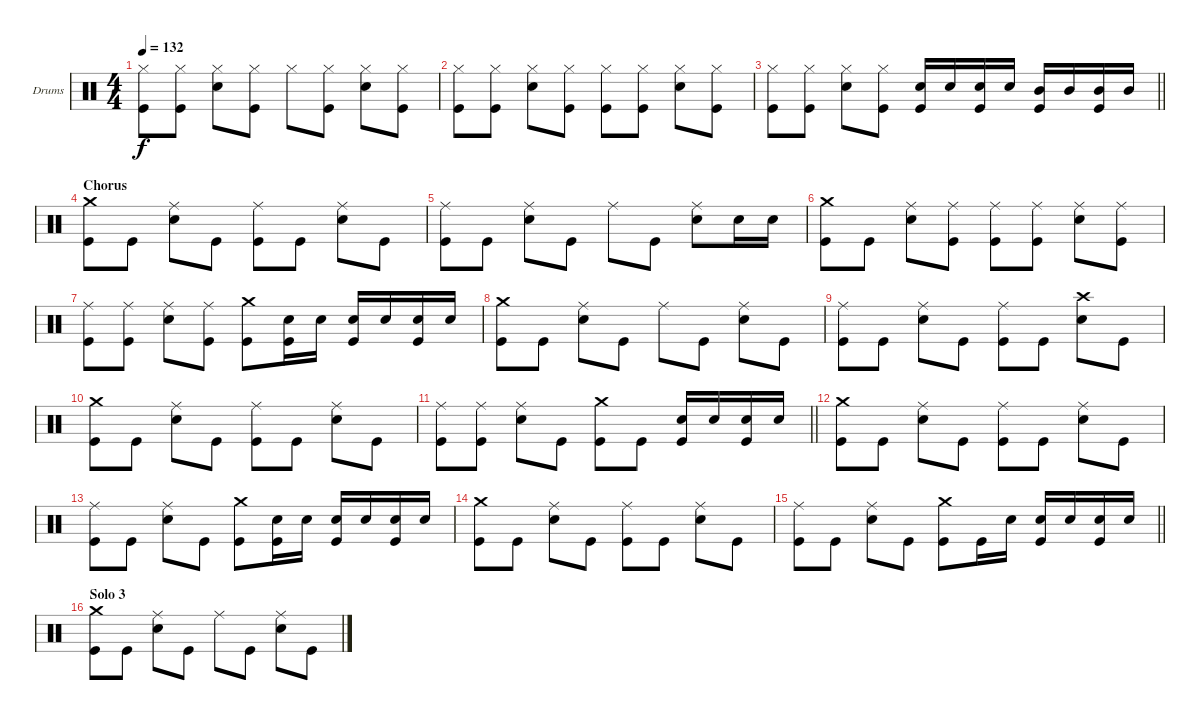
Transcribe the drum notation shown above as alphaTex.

\bracketExtendMode groupsimilarinstruments
\firstSystemTrackNameOrientation horizontal
\otherSystemsTrackNameOrientation horizontal
\track ("Drumkit" "Drums") {instrument percussion}
\staff {score}
\articulation defaults
\ts (4 4)
\tempo 132
\clef neutral
\ks c
("Hi-Hat (closed)" "Kick (hit)").8{dy f} ("Hi-Hat (closed)" "Kick (hit)").8 ("Hi-Hat (closed)" "Snare (hit) 2").8 ("Hi-Hat (closed)" "Kick (hit)").8 "Hi-Hat (closed)".8 ("Hi-Hat (closed)" "Kick (hit)").8 ("Hi-Hat (closed)" "Snare (hit) 2").8 ("Hi-Hat (closed)" "Kick (hit)").8 |
("Hi-Hat (closed)" "Kick (hit)").8 ("Hi-Hat (closed)" "Kick (hit)").8 ("Hi-Hat (closed)" "Snare (hit) 2").8 ("Hi-Hat (closed)" "Kick (hit)").8 ("Hi-Hat (closed)" "Kick (hit)").8 ("Hi-Hat (closed)" "Kick (hit)").8 ("Hi-Hat (closed)" "Snare (hit) 2").8 ("Hi-Hat (closed)" "Kick (hit)").8 |
\barLineRight lightlight
("Hi-Hat (closed)" "Kick (hit)").8 ("Hi-Hat (closed)" "Kick (hit)").8 ("Hi-Hat (closed)" "Snare (hit) 2").8 ("Hi-Hat (closed)" "Kick (hit)").8 ("Snare (hit) 2" "Kick (hit)").16 "Snare (hit) 2".16 ("Snare (hit) 2" "Kick (hit)").16 "Snare (hit) 2".16 ("Mid Tom (hit)" "Kick (hit)").16 "Mid Tom (hit)".16 ("Mid Tom (hit)" "Kick (hit)").16 "Mid Tom (hit)".16 |
\section ("" "Chorus")
("Crash medium (hit)" "Kick (hit)").8 "Kick (hit)".8 ("Ride (middle)" "Snare (hit) 2").8 "Kick (hit)".8 ("Ride (middle)" "Kick (hit)").8 "Kick (hit)".8 ("Ride (middle)" "Snare (hit) 2").8 "Kick (hit)".8 |
("Ride (middle)" "Kick (hit)").8 "Kick (hit)".8 ("Ride (middle)" "Snare (hit) 2").8 "Kick (hit)".8 "Ride (middle)".8 "Kick (hit)".8 ("Ride (middle)" "Snare (hit) 2").8 "Snare (hit) 2".16 "Snare (hit) 2".16 |
("Crash medium (hit)" "Kick (hit)").8 "Kick (hit)".8 ("Ride (middle)" "Snare (hit) 2").8 ("Ride (middle)" "Kick (hit)").8 ("Ride (middle)" "Kick (hit)").8 ("Ride (middle)" "Kick (hit)").8 ("Ride (middle)" "Snare (hit) 2").8 ("Ride (middle)" "Kick (hit)").8 |
("Ride (middle)" "Kick (hit)").8 ("Ride (middle)" "Kick (hit)").8 ("Ride (middle)" "Snare (hit) 2").8 ("Ride (middle)" "Kick (hit)").8 ("Crash medium (hit)" "Kick (hit)").8 ("Snare (hit) 2" "Kick (hit)").16 "Snare (hit) 2".16 ("Snare (hit) 2" "Kick (hit)").16 "Snare (hit) 2".16 ("Snare (hit) 2" "Kick (hit)").16 "Snare (hit) 2".16 |
("Crash medium (hit)" "Kick (hit)").8 "Kick (hit)".8 ("Ride (middle)" "Snare (hit) 2").8 "Kick (hit)".8 "Ride (middle)".8 "Kick (hit)".8 ("Ride (middle)" "Snare (hit) 2").8 "Kick (hit)".8 |
("Ride (middle)" "Kick (hit)").8 "Kick (hit)".8 ("Ride (middle)" "Snare (hit) 2").8 "Kick (hit)".8 ("Ride (middle)" "Kick (hit)").8 "Kick (hit)".8 ("Crash high (hit)" "Snare (hit) 2").8 "Kick (hit)".8 |
("Crash medium (hit)" "Kick (hit)").8 "Kick (hit)".8 ("Ride (middle)" "Snare (hit) 2").8 "Kick (hit)".8 ("Ride (middle)" "Kick (hit)").8 "Kick (hit)".8 ("Ride (middle)" "Snare (hit) 2").8 "Kick (hit)".8 |
\barLineRight lightlight
("Ride (middle)" "Kick (hit)").8 ("Ride (middle)" "Kick (hit)").8 ("Ride (middle)" "Snare (hit) 2").8 "Kick (hit)".8 ("Crash medium (hit)" "Kick (hit)").8 "Kick (hit)".8 ("Snare (hit) 2" "Kick (hit)").16 "Snare (hit) 2".16 ("Snare (hit) 2" "Kick (hit)").16 "Snare (hit) 2".16 |
("Crash medium (hit)" "Kick (hit)").8 "Kick (hit)".8 ("Ride (middle)" "Snare (hit) 2").8 "Kick (hit)".8 ("Ride (middle)" "Kick (hit)").8 "Kick (hit)".8 ("Ride (middle)" "Snare (hit) 2").8 "Kick (hit)".8 |
("Ride (middle)" "Kick (hit)").8 "Kick (hit)".8 ("Ride (middle)" "Snare (hit) 2").8 "Kick (hit)".8 ("Crash medium (hit)" "Kick (hit)").8 ("Snare (hit) 2" "Kick (hit)").16 "Snare (hit) 2".16 ("Snare (hit) 2" "Kick (hit)").16 "Snare (hit) 2".16 ("Snare (hit) 2" "Kick (hit)").16 "Snare (hit) 2".16 |
("Crash medium (hit)" "Kick (hit)").8 "Kick (hit)".8 ("Ride (middle)" "Snare (hit) 2").8 "Kick (hit)".8 ("Ride (middle)" "Kick (hit)").8 "Kick (hit)".8 ("Ride (middle)" "Snare (hit) 2").8 "Kick (hit)".8 |
\barLineRight lightlight
("Ride (middle)" "Kick (hit)").8 "Kick (hit)".8 ("Ride (middle)" "Snare (hit) 2").8 "Kick (hit)".8 ("Crash medium (hit)" "Kick (hit)").8 "Kick (hit)".16 "Snare (hit) 2".16 ("Snare (hit) 2" "Kick (hit)").16 "Snare (hit) 2".16 ("Snare (hit) 2" "Kick (hit)").16 "Snare (hit) 2".16 |
\section ("" "Solo 3")
("Crash medium (hit)" "Kick (hit)").8 "Kick (hit)".8 ("Ride (middle)" "Snare (hit) 2").8 "Kick (hit)".8 "Ride (middle)".8 "Kick (hit)".8 ("Ride (middle)" "Snare (hit) 2").8 "Kick (hit)".8
